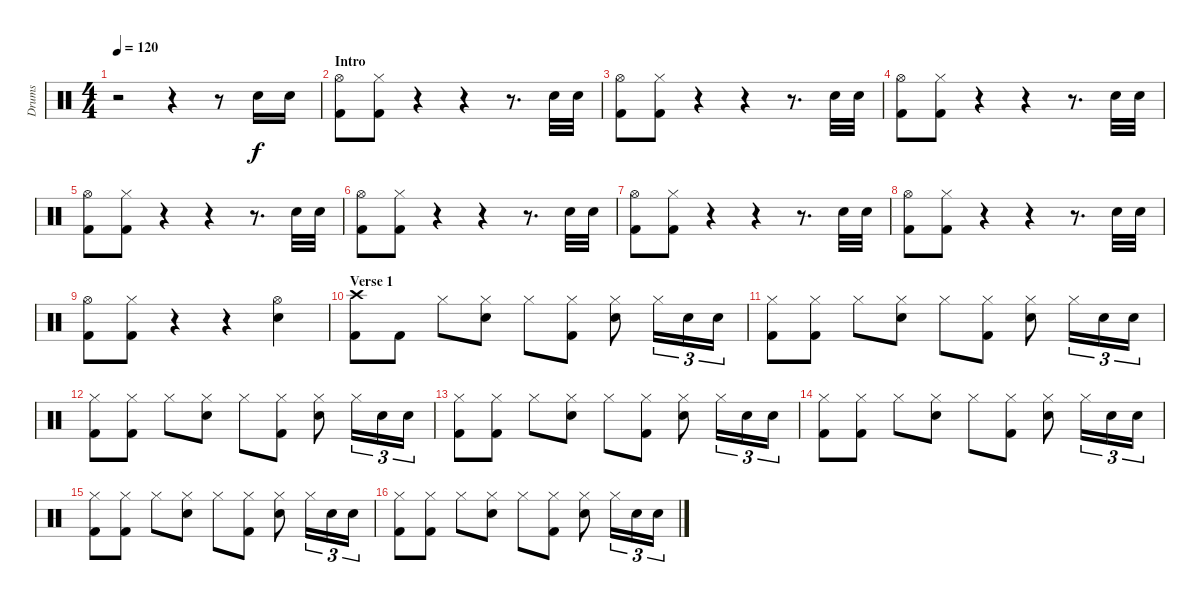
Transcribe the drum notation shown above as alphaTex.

\track ("Drums" "Drums") {instrument percussion}
\staff {score}
\articulation defaults
\ts (4 4)
\tempo 120
\clef neutral
\ks c
r.2{dy f} r.4 r.8 "Snare (hit) 2".16 "Snare (hit) 2".16 |
\section ("" "Intro")
("Hi-Hat (open)" "Kick (hit) 2").8 ("Hi-Hat (closed)" "Kick (hit) 2").8 r.4 r.4 r.8{d} "Snare (hit) 2".32 "Snare (hit) 2".32 |
("Hi-Hat (open)" "Kick (hit) 2").8 ("Hi-Hat (closed)" "Kick (hit) 2").8 r.4 r.4 r.8{d} "Snare (hit) 2".32 "Snare (hit) 2".32 |
("Hi-Hat (open)" "Kick (hit) 2").8 ("Hi-Hat (closed)" "Kick (hit) 2").8 r.4 r.4 r.8{d} "Snare (hit) 2".32 "Snare (hit) 2".32 |
("Hi-Hat (open)" "Kick (hit) 2").8 ("Hi-Hat (closed)" "Kick (hit) 2").8 r.4 r.4 r.8{d} "Snare (hit) 2".32 "Snare (hit) 2".32 |
("Hi-Hat (open)" "Kick (hit) 2").8 ("Hi-Hat (closed)" "Kick (hit) 2").8 r.4 r.4 r.8{d} "Snare (hit) 2".32 "Snare (hit) 2".32 |
("Hi-Hat (open)" "Kick (hit) 2").8 ("Hi-Hat (closed)" "Kick (hit) 2").8 r.4 r.4 r.8{d} "Snare (hit) 2".32 "Snare (hit) 2".32 |
("Hi-Hat (open)" "Kick (hit) 2").8 ("Hi-Hat (closed)" "Kick (hit) 2").8 r.4 r.4 r.8{d} "Snare (hit) 2".32 "Snare (hit) 2".32 |
("Hi-Hat (open)" "Kick (hit) 2").8 ("Hi-Hat (closed)" "Kick (hit) 2").8 r.4 r.4 ("Hi-Hat (open)" "Snare (hit) 2").4 |
\section ("" "Verse 1")
("Crash high (hit)" "Kick (hit) 2").8 "Kick (hit) 2".8 "Hi-Hat (closed)".8 ("Hi-Hat (closed)" "Snare (hit) 2").8 "Hi-Hat (closed)".8 ("Hi-Hat (closed)" "Kick (hit) 2").8 ("Hi-Hat (closed)" "Snare (hit) 2").8 "Hi-Hat (closed)".16{tu (3 2)} "Snare (hit) 2".16{tu (3 2)} "Snare (hit) 2".16{tu (3 2)} |
("Hi-Hat (closed)" "Kick (hit) 2").8 ("Hi-Hat (closed)" "Kick (hit) 2").8 "Hi-Hat (closed)".8 ("Hi-Hat (closed)" "Snare (hit) 2").8 "Hi-Hat (closed)".8 ("Hi-Hat (closed)" "Kick (hit) 2").8 ("Hi-Hat (closed)" "Snare (hit) 2").8 "Hi-Hat (closed)".16{tu (3 2)} "Snare (hit) 2".16{tu (3 2)} "Snare (hit) 2".16{tu (3 2)} |
("Hi-Hat (closed)" "Kick (hit) 2").8 ("Hi-Hat (closed)" "Kick (hit) 2").8 "Hi-Hat (closed)".8 ("Hi-Hat (closed)" "Snare (hit) 2").8 "Hi-Hat (closed)".8 ("Hi-Hat (closed)" "Kick (hit) 2").8 ("Hi-Hat (closed)" "Snare (hit) 2").8 "Hi-Hat (closed)".16{tu (3 2)} "Snare (hit) 2".16{tu (3 2)} "Snare (hit) 2".16{tu (3 2)} |
("Hi-Hat (closed)" "Kick (hit) 2").8 ("Hi-Hat (closed)" "Kick (hit) 2").8 "Hi-Hat (closed)".8 ("Hi-Hat (closed)" "Snare (hit) 2").8 "Hi-Hat (closed)".8 ("Hi-Hat (closed)" "Kick (hit) 2").8 ("Hi-Hat (closed)" "Snare (hit) 2").8 "Hi-Hat (closed)".16{tu (3 2)} "Snare (hit) 2".16{tu (3 2)} "Snare (hit) 2".16{tu (3 2)} |
("Hi-Hat (closed)" "Kick (hit) 2").8 ("Hi-Hat (closed)" "Kick (hit) 2").8 "Hi-Hat (closed)".8 ("Hi-Hat (closed)" "Snare (hit) 2").8 "Hi-Hat (closed)".8 ("Hi-Hat (closed)" "Kick (hit) 2").8 ("Hi-Hat (closed)" "Snare (hit) 2").8 "Hi-Hat (closed)".16{tu (3 2)} "Snare (hit) 2".16{tu (3 2)} "Snare (hit) 2".16{tu (3 2)} |
("Hi-Hat (closed)" "Kick (hit) 2").8 ("Hi-Hat (closed)" "Kick (hit) 2").8 "Hi-Hat (closed)".8 ("Hi-Hat (closed)" "Snare (hit) 2").8 "Hi-Hat (closed)".8 ("Hi-Hat (closed)" "Kick (hit) 2").8 ("Hi-Hat (closed)" "Snare (hit) 2").8 "Hi-Hat (closed)".16{tu (3 2)} "Snare (hit) 2".16{tu (3 2)} "Snare (hit) 2".16{tu (3 2)} |
("Hi-Hat (closed)" "Kick (hit) 2").8 ("Hi-Hat (closed)" "Kick (hit) 2").8 "Hi-Hat (closed)".8 ("Hi-Hat (closed)" "Snare (hit) 2").8 "Hi-Hat (closed)".8 ("Hi-Hat (closed)" "Kick (hit) 2").8 ("Hi-Hat (closed)" "Snare (hit) 2").8 "Hi-Hat (closed)".16{tu (3 2)} "Snare (hit) 2".16{tu (3 2)} "Snare (hit) 2".16{tu (3 2)}
